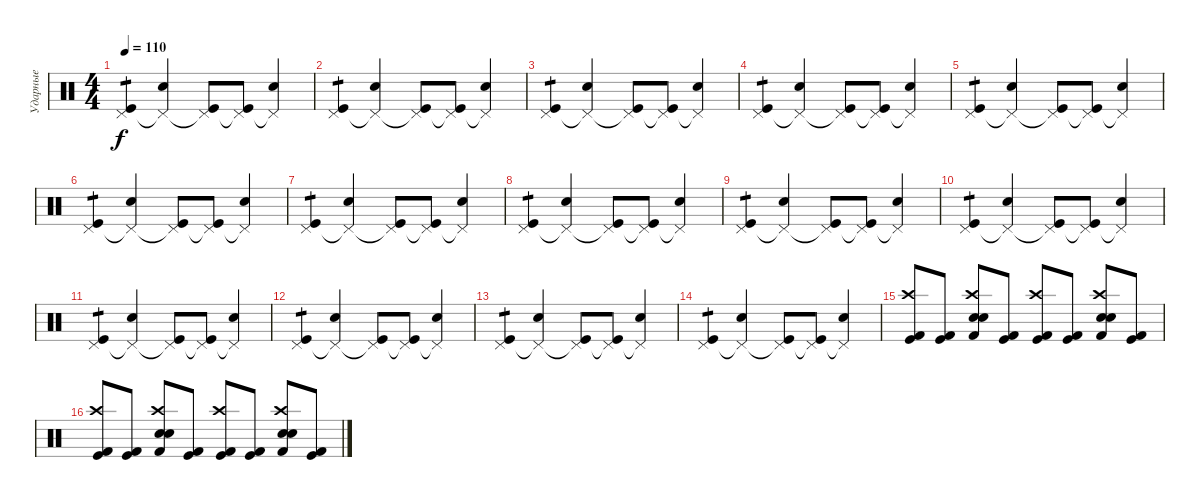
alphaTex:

\track ("Ударные" "Ударные") {instrument percussion}
\staff {score}
\articulation defaults
\ts (4 4)
\tempo 110
\clef neutral
\ks c
("Pedal Hi-Hat (hit)" "Kick (hit)").4{tp 1 dy f} ("Pedal Hi-Hat (hit)"{t} "Electric Snare (hit)").4 ("Pedal Hi-Hat (hit)"{t} "Kick (hit)").8 ("Pedal Hi-Hat (hit)"{t} "Kick (hit)").8 ("Pedal Hi-Hat (hit)"{t} "Electric Snare (hit)").4 |
("Pedal Hi-Hat (hit)" "Kick (hit)").4{tp 1} ("Pedal Hi-Hat (hit)"{t} "Electric Snare (hit)").4 ("Pedal Hi-Hat (hit)"{t} "Kick (hit)").8 ("Pedal Hi-Hat (hit)"{t} "Kick (hit)").8 ("Pedal Hi-Hat (hit)"{t} "Electric Snare (hit)").4 |
("Pedal Hi-Hat (hit)" "Kick (hit)").4{tp 1} ("Pedal Hi-Hat (hit)"{t} "Electric Snare (hit)").4 ("Pedal Hi-Hat (hit)"{t} "Kick (hit)").8 ("Pedal Hi-Hat (hit)"{t} "Kick (hit)").8 ("Pedal Hi-Hat (hit)"{t} "Electric Snare (hit)").4 |
("Pedal Hi-Hat (hit)" "Kick (hit)").4{tp 1} ("Pedal Hi-Hat (hit)"{t} "Electric Snare (hit)").4 ("Pedal Hi-Hat (hit)"{t} "Kick (hit)").8 ("Pedal Hi-Hat (hit)"{t} "Kick (hit)").8 ("Pedal Hi-Hat (hit)"{t} "Electric Snare (hit)").4 |
("Pedal Hi-Hat (hit)" "Kick (hit)").4{tp 1} ("Pedal Hi-Hat (hit)"{t} "Electric Snare (hit)").4 ("Pedal Hi-Hat (hit)"{t} "Kick (hit)").8 ("Pedal Hi-Hat (hit)"{t} "Kick (hit)").8 ("Pedal Hi-Hat (hit)"{t} "Electric Snare (hit)").4 |
("Pedal Hi-Hat (hit)" "Kick (hit)").4{tp 1} ("Pedal Hi-Hat (hit)"{t} "Electric Snare (hit)").4 ("Pedal Hi-Hat (hit)"{t} "Kick (hit)").8 ("Pedal Hi-Hat (hit)"{t} "Kick (hit)").8 ("Pedal Hi-Hat (hit)"{t} "Electric Snare (hit)").4 |
("Pedal Hi-Hat (hit)" "Kick (hit)").4{tp 1} ("Pedal Hi-Hat (hit)"{t} "Electric Snare (hit)").4 ("Pedal Hi-Hat (hit)"{t} "Kick (hit)").8 ("Pedal Hi-Hat (hit)"{t} "Kick (hit)").8 ("Pedal Hi-Hat (hit)"{t} "Electric Snare (hit)").4 |
("Pedal Hi-Hat (hit)" "Kick (hit)").4{tp 1} ("Pedal Hi-Hat (hit)"{t} "Electric Snare (hit)").4 ("Pedal Hi-Hat (hit)"{t} "Kick (hit)").8 ("Pedal Hi-Hat (hit)"{t} "Kick (hit)").8 ("Pedal Hi-Hat (hit)"{t} "Electric Snare (hit)").4 |
("Pedal Hi-Hat (hit)" "Kick (hit)").4{tp 1} ("Pedal Hi-Hat (hit)"{t} "Electric Snare (hit)").4 ("Pedal Hi-Hat (hit)"{t} "Kick (hit)").8 ("Pedal Hi-Hat (hit)"{t} "Kick (hit)").8 ("Pedal Hi-Hat (hit)"{t} "Electric Snare (hit)").4 |
("Pedal Hi-Hat (hit)" "Kick (hit)").4{tp 1} ("Pedal Hi-Hat (hit)"{t} "Electric Snare (hit)").4 ("Pedal Hi-Hat (hit)"{t} "Kick (hit)").8 ("Pedal Hi-Hat (hit)"{t} "Kick (hit)").8 ("Pedal Hi-Hat (hit)"{t} "Electric Snare (hit)").4 |
("Pedal Hi-Hat (hit)" "Kick (hit)").4{tp 1} ("Pedal Hi-Hat (hit)"{t} "Electric Snare (hit)").4 ("Pedal Hi-Hat (hit)"{t} "Kick (hit)").8 ("Pedal Hi-Hat (hit)"{t} "Kick (hit)").8 ("Pedal Hi-Hat (hit)"{t} "Electric Snare (hit)").4 |
("Pedal Hi-Hat (hit)" "Kick (hit)").4{tp 1} ("Pedal Hi-Hat (hit)"{t} "Electric Snare (hit)").4 ("Pedal Hi-Hat (hit)"{t} "Kick (hit)").8 ("Pedal Hi-Hat (hit)"{t} "Kick (hit)").8 ("Pedal Hi-Hat (hit)"{t} "Electric Snare (hit)").4 |
("Pedal Hi-Hat (hit)" "Kick (hit)").4{tp 1} ("Pedal Hi-Hat (hit)"{t} "Electric Snare (hit)").4 ("Pedal Hi-Hat (hit)"{t} "Kick (hit)").8 ("Pedal Hi-Hat (hit)"{t} "Kick (hit)").8 ("Pedal Hi-Hat (hit)"{t} "Electric Snare (hit)").4 |
("Pedal Hi-Hat (hit)" "Kick (hit)").4{tp 1} ("Pedal Hi-Hat (hit)"{t} "Electric Snare (hit)").4 ("Pedal Hi-Hat (hit)"{t} "Kick (hit)").8 ("Pedal Hi-Hat (hit)"{t} "Kick (hit)").8 ("Pedal Hi-Hat (hit)"{t} "Electric Snare (hit)").4 |
("Crash high (hit)" "Kick (hit)" "Kick (hit) 2").8 ("Kick (hit)" "Kick (hit) 2").8 ("Crash high (hit)" "Snare (hit) 2" "Electric Snare (hit)" "Kick (hit) 2").8 ("Kick (hit)" "Kick (hit) 2").8 ("Crash high (hit)" "Kick (hit)" "Kick (hit) 2").8 ("Kick (hit)" "Kick (hit) 2").8 ("Crash high (hit)" "Snare (hit) 2" "Electric Snare (hit)" "Kick (hit) 2").8 ("Kick (hit)" "Kick (hit) 2").8 |
("Crash high (hit)" "Kick (hit)" "Kick (hit) 2").8 ("Kick (hit)" "Kick (hit) 2").8 ("Crash high (hit)" "Snare (hit) 2" "Electric Snare (hit)" "Kick (hit) 2").8 ("Kick (hit)" "Kick (hit) 2").8 ("Crash high (hit)" "Kick (hit)" "Kick (hit) 2").8 ("Kick (hit)" "Kick (hit) 2").8 ("Crash high (hit)" "Snare (hit) 2" "Electric Snare (hit)" "Kick (hit) 2").8 ("Kick (hit)" "Kick (hit) 2").8
